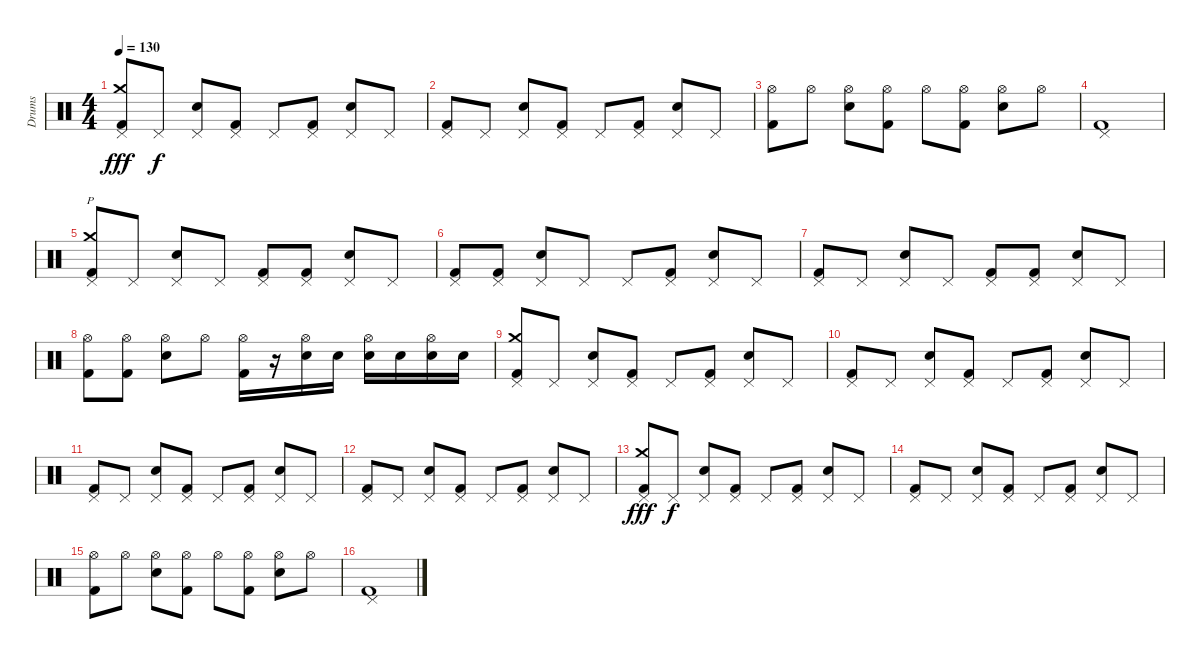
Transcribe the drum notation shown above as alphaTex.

\track ("Drums" "Drums") {instrument percussion}
\staff {score}
\articulation defaults
\ts (4 4)
\tempo 130
\clef neutral
\ks c
("Kick (hit) 2" "Crash medium (hit)" "Pedal Hi-Hat (hit)").8{dy fff} "Pedal Hi-Hat (hit)".8{dy f} ("Electric Snare (hit)" "Pedal Hi-Hat (hit)").8 ("Kick (hit) 2" "Pedal Hi-Hat (hit)").8 "Pedal Hi-Hat (hit)".8 ("Kick (hit) 2" "Pedal Hi-Hat (hit)").8 ("Electric Snare (hit)" "Pedal Hi-Hat (hit)").8 "Pedal Hi-Hat (hit)".8 |
("Kick (hit) 2" "Pedal Hi-Hat (hit)").8 "Pedal Hi-Hat (hit)".8 ("Electric Snare (hit)" "Pedal Hi-Hat (hit)").8 ("Kick (hit) 2" "Pedal Hi-Hat (hit)").8 "Pedal Hi-Hat (hit)".8 ("Kick (hit) 2" "Pedal Hi-Hat (hit)").8 ("Electric Snare (hit)" "Pedal Hi-Hat (hit)").8 "Pedal Hi-Hat (hit)".8 |
("Kick (hit) 2" "Hi-Hat (open)").8 "Hi-Hat (open)".8 ("Electric Snare (hit)" "Hi-Hat (open)").8 ("Kick (hit) 2" "Hi-Hat (open)").8 "Hi-Hat (open)".8 ("Kick (hit) 2" "Hi-Hat (open)").8 ("Electric Snare (hit)" "Hi-Hat (open)").8 "Hi-Hat (open)".8 |
("Pedal Hi-Hat (hit)" "Kick (hit) 2").1 |
("Kick (hit) 2" "Crash medium (hit)" "Pedal Hi-Hat (hit)").8{p} "Pedal Hi-Hat (hit)".8 ("Electric Snare (hit)" "Pedal Hi-Hat (hit)").8 "Pedal Hi-Hat (hit)".8 ("Kick (hit) 2" "Pedal Hi-Hat (hit)").8 ("Kick (hit) 2" "Pedal Hi-Hat (hit)").8 ("Electric Snare (hit)" "Pedal Hi-Hat (hit)").8 "Pedal Hi-Hat (hit)".8 |
("Kick (hit) 2" "Pedal Hi-Hat (hit)").8 ("Kick (hit) 2" "Pedal Hi-Hat (hit)").8 ("Electric Snare (hit)" "Pedal Hi-Hat (hit)").8 "Pedal Hi-Hat (hit)".8 "Pedal Hi-Hat (hit)".8 ("Kick (hit) 2" "Pedal Hi-Hat (hit)").8 ("Electric Snare (hit)" "Pedal Hi-Hat (hit)").8 "Pedal Hi-Hat (hit)".8 |
("Kick (hit) 2" "Pedal Hi-Hat (hit)").8 "Pedal Hi-Hat (hit)".8 ("Electric Snare (hit)" "Pedal Hi-Hat (hit)").8 "Pedal Hi-Hat (hit)".8 ("Kick (hit) 2" "Pedal Hi-Hat (hit)").8 ("Kick (hit) 2" "Pedal Hi-Hat (hit)").8 ("Electric Snare (hit)" "Pedal Hi-Hat (hit)").8 "Pedal Hi-Hat (hit)".8 |
("Kick (hit) 2" "Hi-Hat (open)").8 ("Kick (hit) 2" "Hi-Hat (open)").8 ("Electric Snare (hit)" "Hi-Hat (open)").8 "Hi-Hat (open)".8 ("Hi-Hat (open)" "Kick (hit) 2").16 r.16 ("Hi-Hat (open)" "Electric Snare (hit)").16 "Electric Snare (hit)".16 ("Hi-Hat (open)" "Electric Snare (hit)").16 "Electric Snare (hit)".16 ("Hi-Hat (open)" "Electric Snare (hit)").16 "Electric Snare (hit)".16 |
("Crash medium (hit)" "Kick (hit) 2" "Pedal Hi-Hat (hit)").8 "Pedal Hi-Hat (hit)".8 ("Electric Snare (hit)" "Pedal Hi-Hat (hit)").8 ("Kick (hit) 2" "Pedal Hi-Hat (hit)").8 "Pedal Hi-Hat (hit)".8 ("Kick (hit) 2" "Pedal Hi-Hat (hit)").8 ("Electric Snare (hit)" "Pedal Hi-Hat (hit)").8 "Pedal Hi-Hat (hit)".8 |
("Kick (hit) 2" "Pedal Hi-Hat (hit)").8 "Pedal Hi-Hat (hit)".8 ("Electric Snare (hit)" "Pedal Hi-Hat (hit)").8 ("Kick (hit) 2" "Pedal Hi-Hat (hit)").8 "Pedal Hi-Hat (hit)".8 ("Kick (hit) 2" "Pedal Hi-Hat (hit)").8 ("Electric Snare (hit)" "Pedal Hi-Hat (hit)").8 "Pedal Hi-Hat (hit)".8 |
("Kick (hit) 2" "Pedal Hi-Hat (hit)").8 "Pedal Hi-Hat (hit)".8 ("Electric Snare (hit)" "Pedal Hi-Hat (hit)").8 ("Kick (hit) 2" "Pedal Hi-Hat (hit)").8 "Pedal Hi-Hat (hit)".8 ("Kick (hit) 2" "Pedal Hi-Hat (hit)").8 ("Electric Snare (hit)" "Pedal Hi-Hat (hit)").8 "Pedal Hi-Hat (hit)".8 |
("Kick (hit) 2" "Pedal Hi-Hat (hit)").8 "Pedal Hi-Hat (hit)".8 ("Electric Snare (hit)" "Pedal Hi-Hat (hit)").8 ("Kick (hit) 2" "Pedal Hi-Hat (hit)").8 "Pedal Hi-Hat (hit)".8 ("Kick (hit) 2" "Pedal Hi-Hat (hit)").8 ("Electric Snare (hit)" "Pedal Hi-Hat (hit)").8 "Pedal Hi-Hat (hit)".8 |
("Kick (hit) 2" "Crash medium (hit)" "Pedal Hi-Hat (hit)").8{dy fff} "Pedal Hi-Hat (hit)".8{dy f} ("Electric Snare (hit)" "Pedal Hi-Hat (hit)").8 ("Kick (hit) 2" "Pedal Hi-Hat (hit)").8 "Pedal Hi-Hat (hit)".8 ("Kick (hit) 2" "Pedal Hi-Hat (hit)").8 ("Electric Snare (hit)" "Pedal Hi-Hat (hit)").8 "Pedal Hi-Hat (hit)".8 |
("Kick (hit) 2" "Pedal Hi-Hat (hit)").8 "Pedal Hi-Hat (hit)".8 ("Electric Snare (hit)" "Pedal Hi-Hat (hit)").8 ("Kick (hit) 2" "Pedal Hi-Hat (hit)").8 "Pedal Hi-Hat (hit)".8 ("Kick (hit) 2" "Pedal Hi-Hat (hit)").8 ("Electric Snare (hit)" "Pedal Hi-Hat (hit)").8 "Pedal Hi-Hat (hit)".8 |
("Kick (hit) 2" "Hi-Hat (open)").8 "Hi-Hat (open)".8 ("Electric Snare (hit)" "Hi-Hat (open)").8 ("Kick (hit) 2" "Hi-Hat (open)").8 "Hi-Hat (open)".8 ("Kick (hit) 2" "Hi-Hat (open)").8 ("Electric Snare (hit)" "Hi-Hat (open)").8 "Hi-Hat (open)".8 |
("Pedal Hi-Hat (hit)" "Kick (hit) 2").1
